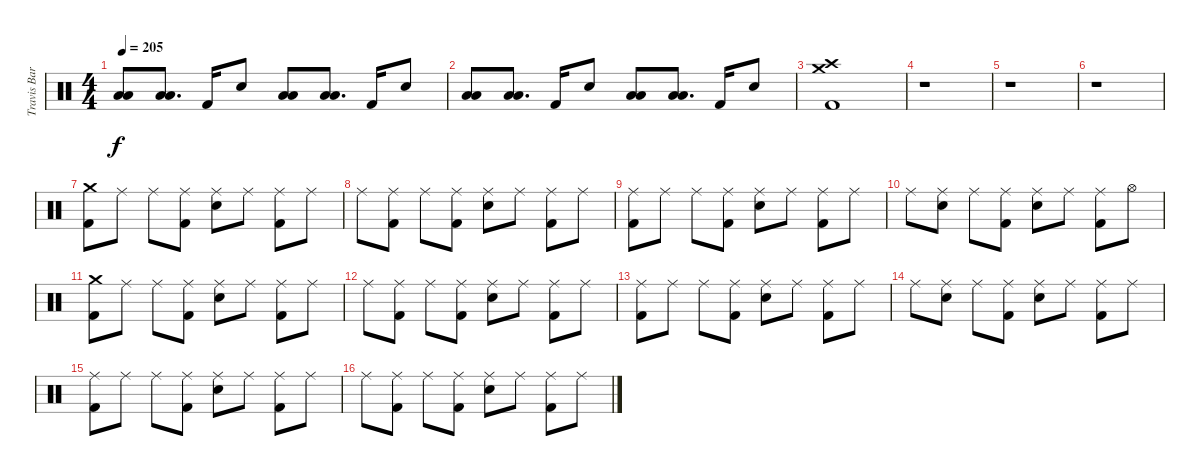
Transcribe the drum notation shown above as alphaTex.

\track ("Travis Barker (Drums)" "Travis Bar") {instrument percussion}
\staff {score}
\articulation defaults
\ts (4 4)
\tempo 205
\clef neutral
\ks c
("Low Tom (hit)" "Low Tom (hit)").8{dy f} ("Low Floor Tom (hit)" "Low Floor Tom (hit)").8{d} "Kick (hit) 2".16 "Electric Snare (hit)".8 ("Low Tom (hit)" "Low Tom (hit)").8 ("Low Floor Tom (hit)" "Low Floor Tom (hit)").8{d} "Kick (hit) 2".16 "Electric Snare (hit)".8 |
("Low Tom (hit)" "Low Tom (hit)").8 ("Low Floor Tom (hit)" "Low Floor Tom (hit)").8{d} "Kick (hit) 2".16 "Electric Snare (hit)".8 ("Low Tom (hit)" "Low Tom (hit)").8 ("Low Floor Tom (hit)" "Low Floor Tom (hit)").8{d} "Kick (hit) 2".16 "Electric Snare (hit)".8 |
("Crash high (hit)" "Crash medium (hit)" "Kick (hit) 2").1 |
r.1 |
r.1 |
r.1 |
("Crash medium (hit)" "Kick (hit) 2").8 "Ride (middle)".8 "Ride (middle)".8 ("Ride (middle)" "Kick (hit) 2").8 ("Ride (middle)" "Electric Snare (hit)").8 "Ride (middle)".8 ("Ride (middle)" "Kick (hit) 2").8 "Ride (middle)".8 |
"Ride (middle)".8 ("Ride (middle)" "Kick (hit) 2").8 "Ride (middle)".8 ("Ride (middle)" "Kick (hit) 2").8 ("Ride (middle)" "Electric Snare (hit)").8 "Ride (middle)".8 ("Ride (middle)" "Kick (hit) 2").8 "Ride (middle)".8 |
("Ride (middle)" "Kick (hit) 2").8 "Ride (middle)".8 "Ride (middle)".8 ("Ride (middle)" "Kick (hit) 2").8 ("Ride (middle)" "Electric Snare (hit)").8 "Ride (middle)".8 ("Ride (middle)" "Kick (hit) 2").8 "Ride (middle)".8 |
"Ride (middle)".8 ("Ride (middle)" "Electric Snare (hit)").8 "Ride (middle)".8 ("Ride (middle)" "Kick (hit) 2").8 ("Ride (middle)" "Electric Snare (hit)").8 "Ride (middle)".8 ("Ride (middle)" "Kick (hit) 2").8 "Hi-Hat (open)".8 |
("Crash medium (hit)" "Kick (hit) 2").8 "Ride (middle)".8 "Ride (middle)".8 ("Ride (middle)" "Kick (hit) 2").8 ("Ride (middle)" "Electric Snare (hit)").8 "Ride (middle)".8 ("Ride (middle)" "Kick (hit) 2").8 "Ride (middle)".8 |
"Ride (middle)".8 ("Ride (middle)" "Kick (hit) 2").8 "Ride (middle)".8 ("Ride (middle)" "Kick (hit) 2").8 ("Ride (middle)" "Electric Snare (hit)").8 "Ride (middle)".8 ("Ride (middle)" "Kick (hit) 2").8 "Ride (middle)".8 |
("Ride (middle)" "Kick (hit) 2").8 "Ride (middle)".8 "Ride (middle)".8 ("Ride (middle)" "Kick (hit) 2").8 ("Ride (middle)" "Electric Snare (hit)").8 "Ride (middle)".8 ("Ride (middle)" "Kick (hit) 2").8 "Ride (middle)".8 |
"Ride (middle)".8 ("Ride (middle)" "Electric Snare (hit)").8 "Ride (middle)".8 ("Ride (middle)" "Kick (hit) 2").8 ("Ride (middle)" "Electric Snare (hit)").8 "Ride (middle)".8 ("Ride (middle)" "Kick (hit) 2").8 "Ride (middle)".8 |
("Ride (middle)" "Kick (hit) 2").8 "Ride (middle)".8 "Ride (middle)".8 ("Ride (middle)" "Kick (hit) 2").8 ("Ride (middle)" "Electric Snare (hit)").8 "Ride (middle)".8 ("Ride (middle)" "Kick (hit) 2").8 "Ride (middle)".8 |
"Ride (middle)".8 ("Ride (middle)" "Kick (hit) 2").8 "Ride (middle)".8 ("Ride (middle)" "Kick (hit) 2").8 ("Ride (middle)" "Electric Snare (hit)").8 "Ride (middle)".8 ("Ride (middle)" "Kick (hit) 2").8 "Ride (middle)".8
